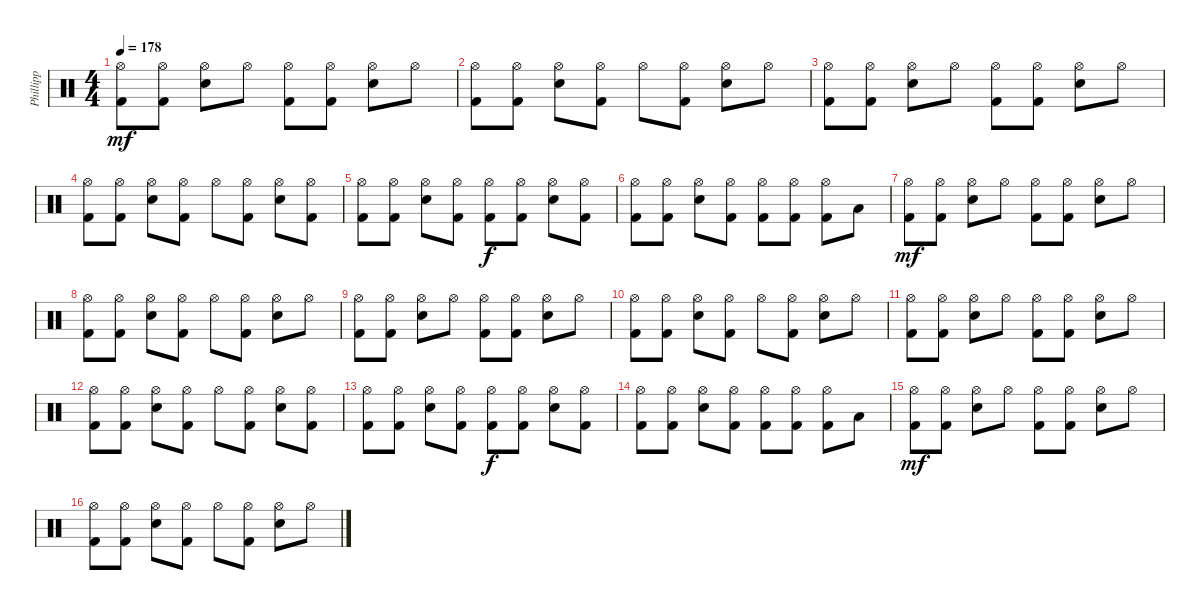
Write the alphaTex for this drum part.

\track ("Phillipp" "Phillipp") {instrument percussion}
\staff {score}
\articulation defaults
\ts (4 4)
\tempo 178
\clef neutral
\ks c
("Hi-Hat (open)" "Kick (hit) 2").8{dy mf} ("Hi-Hat (open)" "Kick (hit) 2").8 ("Hi-Hat (open)" "Electric Snare (hit)").8 "Hi-Hat (open)".8 ("Hi-Hat (open)" "Kick (hit) 2").8 ("Hi-Hat (open)" "Kick (hit) 2").8 ("Hi-Hat (open)" "Electric Snare (hit)").8 "Hi-Hat (open)".8 |
("Hi-Hat (open)" "Kick (hit) 2").8 ("Hi-Hat (open)" "Kick (hit) 2").8 ("Hi-Hat (open)" "Electric Snare (hit)").8 ("Hi-Hat (open)" "Kick (hit) 2").8 "Hi-Hat (open)".8 ("Hi-Hat (open)" "Kick (hit) 2").8 ("Hi-Hat (open)" "Electric Snare (hit)").8 "Hi-Hat (open)".8 |
("Hi-Hat (open)" "Kick (hit) 2").8 ("Hi-Hat (open)" "Kick (hit) 2").8 ("Hi-Hat (open)" "Electric Snare (hit)").8 "Hi-Hat (open)".8 ("Hi-Hat (open)" "Kick (hit) 2").8 ("Hi-Hat (open)" "Kick (hit) 2").8 ("Hi-Hat (open)" "Electric Snare (hit)").8 "Hi-Hat (open)".8 |
("Hi-Hat (open)" "Kick (hit) 2").8 ("Hi-Hat (open)" "Kick (hit) 2").8 ("Hi-Hat (open)" "Electric Snare (hit)").8 ("Hi-Hat (open)" "Kick (hit) 2").8 "Hi-Hat (open)".8 ("Hi-Hat (open)" "Kick (hit) 2").8 ("Hi-Hat (open)" "Electric Snare (hit)").8 ("Hi-Hat (open)" "Kick (hit) 2").8 |
("Hi-Hat (open)" "Kick (hit) 2").8 ("Hi-Hat (open)" "Kick (hit) 2").8 ("Hi-Hat (open)" "Electric Snare (hit)").8 ("Hi-Hat (open)" "Kick (hit) 2").8 ("Hi-Hat (open)" "Kick (hit) 2").8{dy f} ("Hi-Hat (open)" "Kick (hit) 2").8 ("Hi-Hat (open)" "Electric Snare (hit)").8 ("Hi-Hat (open)" "Kick (hit) 2").8 |
("Hi-Hat (open)" "Kick (hit) 2").8 ("Hi-Hat (open)" "Kick (hit) 2").8 ("Hi-Hat (open)" "Electric Snare (hit)").8 ("Hi-Hat (open)" "Kick (hit) 2").8 ("Hi-Hat (open)" "Kick (hit) 2").8 ("Hi-Hat (open)" "Kick (hit) 2").8 ("Hi-Hat (open)" "Kick (hit) 2").8 "Low Tom (hit)".8 |
("Hi-Hat (open)" "Kick (hit) 2").8{dy mf} ("Hi-Hat (open)" "Kick (hit) 2").8 ("Hi-Hat (open)" "Electric Snare (hit)").8 "Hi-Hat (open)".8 ("Hi-Hat (open)" "Kick (hit) 2").8 ("Hi-Hat (open)" "Kick (hit) 2").8 ("Hi-Hat (open)" "Electric Snare (hit)").8 "Hi-Hat (open)".8 |
("Hi-Hat (open)" "Kick (hit) 2").8 ("Hi-Hat (open)" "Kick (hit) 2").8 ("Hi-Hat (open)" "Electric Snare (hit)").8 ("Hi-Hat (open)" "Kick (hit) 2").8 "Hi-Hat (open)".8 ("Hi-Hat (open)" "Kick (hit) 2").8 ("Hi-Hat (open)" "Electric Snare (hit)").8 "Hi-Hat (open)".8 |
("Hi-Hat (open)" "Kick (hit) 2").8 ("Hi-Hat (open)" "Kick (hit) 2").8 ("Hi-Hat (open)" "Electric Snare (hit)").8 "Hi-Hat (open)".8 ("Hi-Hat (open)" "Kick (hit) 2").8 ("Hi-Hat (open)" "Kick (hit) 2").8 ("Hi-Hat (open)" "Electric Snare (hit)").8 "Hi-Hat (open)".8 |
("Hi-Hat (open)" "Kick (hit) 2").8 ("Hi-Hat (open)" "Kick (hit) 2").8 ("Hi-Hat (open)" "Electric Snare (hit)").8 ("Hi-Hat (open)" "Kick (hit) 2").8 "Hi-Hat (open)".8 ("Hi-Hat (open)" "Kick (hit) 2").8 ("Hi-Hat (open)" "Electric Snare (hit)").8 "Hi-Hat (open)".8 |
("Hi-Hat (open)" "Kick (hit) 2").8 ("Hi-Hat (open)" "Kick (hit) 2").8 ("Hi-Hat (open)" "Electric Snare (hit)").8 "Hi-Hat (open)".8 ("Hi-Hat (open)" "Kick (hit) 2").8 ("Hi-Hat (open)" "Kick (hit) 2").8 ("Hi-Hat (open)" "Electric Snare (hit)").8 "Hi-Hat (open)".8 |
("Hi-Hat (open)" "Kick (hit) 2").8 ("Hi-Hat (open)" "Kick (hit) 2").8 ("Hi-Hat (open)" "Electric Snare (hit)").8 ("Hi-Hat (open)" "Kick (hit) 2").8 "Hi-Hat (open)".8 ("Hi-Hat (open)" "Kick (hit) 2").8 ("Hi-Hat (open)" "Electric Snare (hit)").8 ("Hi-Hat (open)" "Kick (hit) 2").8 |
("Hi-Hat (open)" "Kick (hit) 2").8 ("Hi-Hat (open)" "Kick (hit) 2").8 ("Hi-Hat (open)" "Electric Snare (hit)").8 ("Hi-Hat (open)" "Kick (hit) 2").8 ("Hi-Hat (open)" "Kick (hit) 2").8{dy f} ("Hi-Hat (open)" "Kick (hit) 2").8 ("Hi-Hat (open)" "Electric Snare (hit)").8 ("Hi-Hat (open)" "Kick (hit) 2").8 |
("Hi-Hat (open)" "Kick (hit) 2").8 ("Hi-Hat (open)" "Kick (hit) 2").8 ("Hi-Hat (open)" "Electric Snare (hit)").8 ("Hi-Hat (open)" "Kick (hit) 2").8 ("Hi-Hat (open)" "Kick (hit) 2").8 ("Hi-Hat (open)" "Kick (hit) 2").8 ("Hi-Hat (open)" "Kick (hit) 2").8 "Low Tom (hit)".8 |
("Hi-Hat (open)" "Kick (hit) 2").8{dy mf} ("Hi-Hat (open)" "Kick (hit) 2").8 ("Hi-Hat (open)" "Electric Snare (hit)").8 "Hi-Hat (open)".8 ("Hi-Hat (open)" "Kick (hit) 2").8 ("Hi-Hat (open)" "Kick (hit) 2").8 ("Hi-Hat (open)" "Electric Snare (hit)").8 "Hi-Hat (open)".8 |
("Hi-Hat (open)" "Kick (hit) 2").8 ("Hi-Hat (open)" "Kick (hit) 2").8 ("Hi-Hat (open)" "Electric Snare (hit)").8 ("Hi-Hat (open)" "Kick (hit) 2").8 "Hi-Hat (open)".8 ("Hi-Hat (open)" "Kick (hit) 2").8 ("Hi-Hat (open)" "Electric Snare (hit)").8 "Hi-Hat (open)".8
